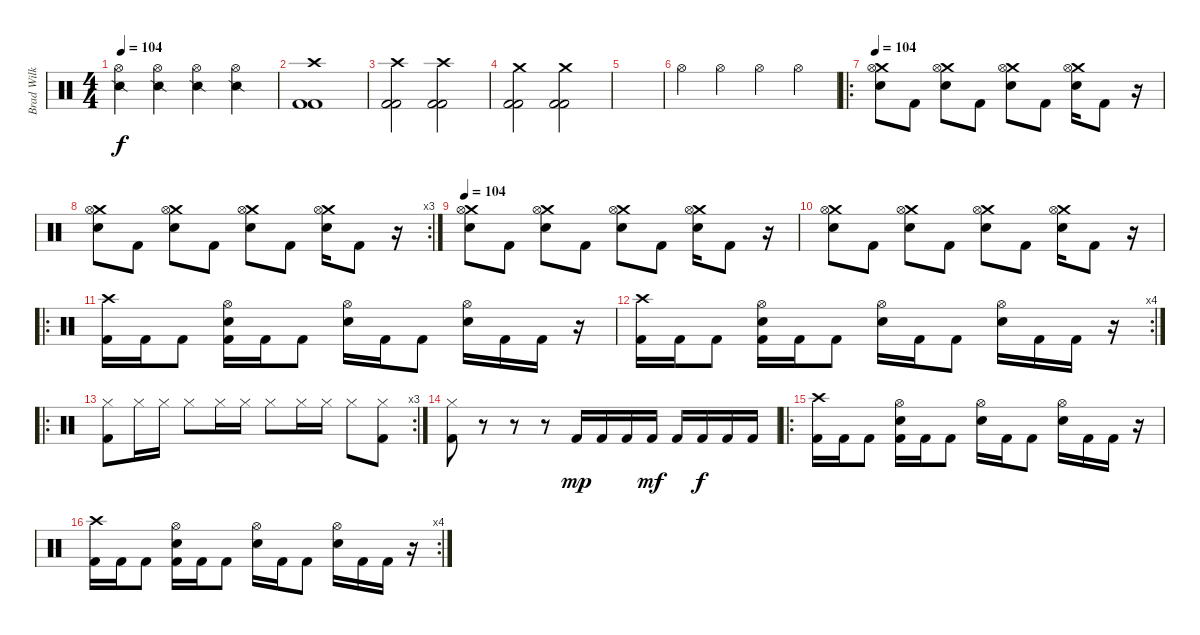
\track ("Brad Wilk" "Brad Wilk") {instrument percussion}
\staff {score}
\articulation defaults
\ts (4 4)
\tempo 104
\clef neutral
\ks c
("Snare (side stick) 2" "Hi-Hat (open)").4{dy f} ("Snare (side stick) 2" "Hi-Hat (open)").4 ("Snare (side stick) 2" "Hi-Hat (open)").4 ("Snare (side stick) 2" "Hi-Hat (open)").4 |
("Crash high (hit)" "Kick (hit) 2" "Kick (hit) 2").1 |
("Crash high (hit)" "Kick (hit) 2" "Kick (hit) 2").2 ("Crash high (hit)" "Kick (hit) 2" "Kick (hit) 2").2 |
("Crash medium (hit)" "Kick (hit) 2" "Kick (hit) 2").2 ("Crash medium (hit)" "Kick (hit) 2" "Kick (hit) 2").2 |
|
"Hi-Hat (open)".4 "Hi-Hat (open)".4 "Hi-Hat (open)".4 "Hi-Hat (open)".4 |
\ro
\tempo 104
("Crash medium (hit)" "Hi-Hat (open)" "Electric Snare (hit)").8 "Kick (hit) 2".8 ("Crash medium (hit)" "Hi-Hat (open)" "Electric Snare (hit)").8 "Kick (hit) 2".8 ("Crash medium (hit)" "Hi-Hat (open)" "Electric Snare (hit)").8 "Kick (hit) 2".8 ("Crash medium (hit)" "Hi-Hat (open)" "Electric Snare (hit)").16 "Kick (hit) 2".8 r.16 |
\rc 3
("Crash medium (hit)" "Hi-Hat (open)" "Electric Snare (hit)").8 "Kick (hit) 2".8 ("Crash medium (hit)" "Hi-Hat (open)" "Electric Snare (hit)").8 "Kick (hit) 2".8 ("Crash medium (hit)" "Hi-Hat (open)" "Electric Snare (hit)").8 "Kick (hit) 2".8 ("Crash medium (hit)" "Hi-Hat (open)" "Electric Snare (hit)").16 "Kick (hit) 2".8 r.16 |
\tempo 104
("Crash medium (hit)" "Hi-Hat (open)" "Electric Snare (hit)").8 "Kick (hit) 2".8 ("Crash medium (hit)" "Hi-Hat (open)" "Electric Snare (hit)").8 "Kick (hit) 2".8 ("Crash medium (hit)" "Hi-Hat (open)" "Electric Snare (hit)").8 "Kick (hit) 2".8 ("Crash medium (hit)" "Hi-Hat (open)" "Electric Snare (hit)").16 "Kick (hit) 2".8 r.16 |
("Crash medium (hit)" "Hi-Hat (open)" "Electric Snare (hit)").8 "Kick (hit) 2".8 ("Crash medium (hit)" "Hi-Hat (open)" "Electric Snare (hit)").8 "Kick (hit) 2".8 ("Crash medium (hit)" "Hi-Hat (open)" "Electric Snare (hit)").8 "Kick (hit) 2".8 ("Crash medium (hit)" "Hi-Hat (open)" "Electric Snare (hit)").16 "Kick (hit) 2".8 r.16 |
\ro
("Crash high (hit)" "Kick (hit) 2").16 "Kick (hit) 2".16 "Kick (hit) 2".8 ("Hi-Hat (open)" "Electric Snare (hit)" "Kick (hit) 2").16 "Kick (hit) 2".16 "Kick (hit) 2".8 ("Hi-Hat (open)" "Electric Snare (hit)").16 "Kick (hit) 2".16 "Kick (hit) 2".8 ("Hi-Hat (open)" "Electric Snare (hit)").16 "Kick (hit) 2".16 "Kick (hit) 2".16 r.16 |
\rc 4
("Crash high (hit)" "Kick (hit) 2").16 "Kick (hit) 2".16 "Kick (hit) 2".8 ("Hi-Hat (open)" "Electric Snare (hit)" "Kick (hit) 2").16 "Kick (hit) 2".16 "Kick (hit) 2".8 ("Hi-Hat (open)" "Electric Snare (hit)").16 "Kick (hit) 2".16 "Kick (hit) 2".8 ("Hi-Hat (open)" "Electric Snare (hit)").16 "Kick (hit) 2".16 "Kick (hit) 2".16 r.16 |
\ro
\rc 3
("Hi-Hat (closed)" "Kick (hit) 2").8 "Hi-Hat (closed)".16 "Hi-Hat (closed)".16 "Hi-Hat (closed)".8 "Hi-Hat (closed)".16 "Hi-Hat (closed)".16 "Hi-Hat (closed)".8 "Hi-Hat (closed)".16 "Hi-Hat (closed)".16 "Hi-Hat (closed)".8 ("Hi-Hat (closed)" "Kick (hit) 2").8 |
("Hi-Hat (closed)" "Kick (hit) 2").8 r.8 r.8 r.8 "Kick (hit) 2".16{dy mp} "Kick (hit) 2".16 "Kick (hit) 2".16 "Kick (hit) 2".16{dy mf} "Kick (hit) 2".16 "Kick (hit) 2".16{dy f} "Kick (hit) 2".16 "Kick (hit) 2".16 |
\ro
("Crash high (hit)" "Kick (hit) 2").16 "Kick (hit) 2".16 "Kick (hit) 2".8 ("Hi-Hat (open)" "Electric Snare (hit)" "Kick (hit) 2").16 "Kick (hit) 2".16 "Kick (hit) 2".8 ("Hi-Hat (open)" "Electric Snare (hit)").16 "Kick (hit) 2".16 "Kick (hit) 2".8 ("Hi-Hat (open)" "Electric Snare (hit)").16 "Kick (hit) 2".16 "Kick (hit) 2".16 r.16 |
\rc 4
("Crash high (hit)" "Kick (hit) 2").16 "Kick (hit) 2".16 "Kick (hit) 2".8 ("Hi-Hat (open)" "Electric Snare (hit)" "Kick (hit) 2").16 "Kick (hit) 2".16 "Kick (hit) 2".8 ("Hi-Hat (open)" "Electric Snare (hit)").16 "Kick (hit) 2".16 "Kick (hit) 2".8 ("Hi-Hat (open)" "Electric Snare (hit)").16 "Kick (hit) 2".16 "Kick (hit) 2".16 r.16
